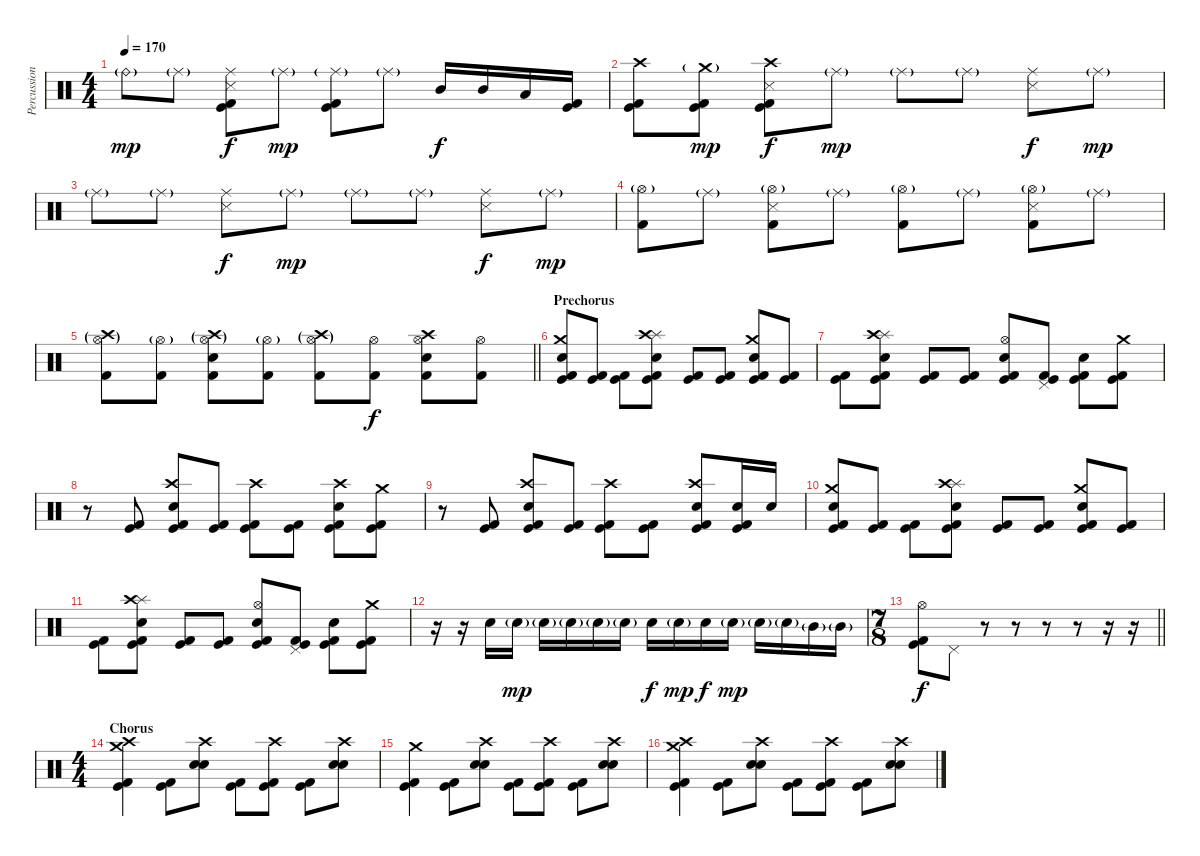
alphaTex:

\track ("Percussion" "Percussion") {instrument percussion}
\staff {score}
\articulation defaults
\ts (4 4)
\tempo 170
\clef neutral
\ks c "Ride (bell)"{g}.8{dy mp} "Ride (middle)"{g}.8
("Ride (middle)" "Snare (side stick) 3" "Kick (hit)" "Kick (hit) 2").8{dy f} "Ride (middle)"{g}.8{dy mp} ("Ride (middle)"{g} "Kick (hit)" "Kick (hit) 2").8 "Ride (middle)"{g}.8 "Mid Tom (hit)".16{dy f} "Mid Tom (hit)".16 "Low Tom (hit)".16 ("Kick (hit) 2" "Kick (hit)").16 |
("Crash high (hit)" "Kick (hit)" "Kick (hit) 2").8 ("Crash medium (hit)"{g} "Kick (hit)" "Kick (hit) 2").8{dy mp} ("Crash high (hit)" "Snare (side stick) 3" "Kick (hit)" "Kick (hit) 2").8{dy f} "Ride (middle)"{g}.8{dy mp} "Ride (middle)"{g}.8 "Ride (middle)"{g}.8 ("Ride (middle)" "Snare (side stick) 3").8{dy f} "Ride (middle)"{g}.8{dy mp} |
"Ride (middle)"{g}.8 "Ride (middle)"{g}.8 ("Ride (middle)" "Snare (side stick) 3").8{dy f} "Ride (middle)"{g}.8{dy mp} "Ride (middle)"{g}.8 "Ride (middle)"{g}.8 ("Ride (middle)" "Snare (side stick) 3").8{dy f} "Ride (middle)"{g}.8{dy mp} |
("Hi-Hat (open)"{g} "Kick (hit) 2").8 "Ride (middle)"{g}.8 ("Hi-Hat (open)"{g} "Snare (side stick) 3" "Kick (hit) 2").8 "Ride (middle)"{g}.8 ("Hi-Hat (open)"{g} "Kick (hit) 2").8 "Ride (middle)"{g}.8 ("Hi-Hat (open)"{g} "Snare (side stick) 3" "Kick (hit) 2").8 "Ride (middle)"{g}.8 |
\barLineRight lightlight
("Hi-Hat (open)"{g} "Crash high (hit)"{g} "Kick (hit) 2").8 ("Hi-Hat (open)"{g} "Kick (hit) 2").8 ("Hi-Hat (open)"{g} "Crash high (hit)"{g} "Electric Snare (hit)" "Kick (hit) 2").8 ("Hi-Hat (open)"{g} "Kick (hit) 2").8 ("Hi-Hat (open)"{g} "Crash high (hit)"{g} "Kick (hit) 2").8 ("Hi-Hat (open)" "Kick (hit) 2").8{dy f} ("Hi-Hat (open)" "Crash high (hit)" "Electric Snare (hit)" "Kick (hit) 2").8 ("Hi-Hat (open)" "Kick (hit) 2").8 |
\section ("" "Prechorus")
("Crash medium (hit)" "Electric Snare (hit)" "Kick (hit)" "Kick (hit) 2").8 ("Kick (hit)" "Kick (hit) 2").8 ("Kick (hit)" "Kick (hit) 2").8 ("Splash (hit)" "Crash high (hit)" "Electric Snare (hit)" "Kick (hit)" "Kick (hit) 2").8 ("Kick (hit)" "Kick (hit) 2").8 ("Kick (hit)" "Kick (hit) 2").8 ("Crash medium (hit)" "Electric Snare (hit)" "Kick (hit)" "Kick (hit) 2").8 ("Kick (hit)" "Kick (hit) 2").8 |
("Kick (hit)" "Kick (hit) 2").8 ("Splash (hit)" "Crash high (hit)" "Electric Snare (hit)" "Kick (hit)" "Kick (hit) 2").8 ("Kick (hit)" "Kick (hit) 2").8 ("Kick (hit)" "Kick (hit) 2").8 ("Hi-Hat (open)" "Electric Snare (hit)" "Kick (hit)" "Kick (hit) 2").8 ("Pedal Hi-Hat (hit)" "Kick (hit)" "Kick (hit) 2").8 ("Electric Snare (hit)" "Kick (hit)" "Kick (hit) 2").8 ("Crash medium (hit)" "Kick (hit)" "Kick (hit) 2").8 |
r.8 ("Kick (hit)" "Kick (hit) 2").8 ("Crash high (hit)" "Electric Snare (hit)" "Kick (hit)" "Kick (hit) 2").8 ("Kick (hit)" "Kick (hit) 2").8 ("Crash high (hit)" "Kick (hit)" "Kick (hit) 2").8 ("Kick (hit)" "Kick (hit) 2").8 ("Crash high (hit)" "Electric Snare (hit)" "Kick (hit)" "Kick (hit) 2").8 ("Crash medium (hit)" "Kick (hit)" "Kick (hit) 2").8 |
r.8 ("Kick (hit)" "Kick (hit) 2").8 ("Crash high (hit)" "Electric Snare (hit)" "Kick (hit)" "Kick (hit) 2").8 ("Kick (hit)" "Kick (hit) 2").8 ("Crash high (hit)" "Kick (hit)" "Kick (hit) 2").8 ("Kick (hit)" "Kick (hit) 2").8 ("Crash high (hit)" "Electric Snare (hit)" "Kick (hit)" "Kick (hit) 2").8 ("Electric Snare (hit)" "Kick (hit)" "Kick (hit) 2").16 "Electric Snare (hit)".16 |
("Crash medium (hit)" "Electric Snare (hit)" "Kick (hit)" "Kick (hit) 2").8 ("Kick (hit)" "Kick (hit) 2").8 ("Kick (hit)" "Kick (hit) 2").8 ("Splash (hit)" "Crash high (hit)" "Electric Snare (hit)" "Kick (hit)" "Kick (hit) 2").8 ("Kick (hit)" "Kick (hit) 2").8 ("Kick (hit)" "Kick (hit) 2").8 ("Crash medium (hit)" "Electric Snare (hit)" "Kick (hit)" "Kick (hit) 2").8 ("Kick (hit)" "Kick (hit) 2").8 |
("Kick (hit)" "Kick (hit) 2").8 ("Splash (hit)" "Crash high (hit)" "Electric Snare (hit)" "Kick (hit)" "Kick (hit) 2").8 ("Kick (hit)" "Kick (hit) 2").8 ("Kick (hit)" "Kick (hit) 2").8 ("Hi-Hat (open)" "Electric Snare (hit)" "Kick (hit)" "Kick (hit) 2").8 ("Pedal Hi-Hat (hit)" "Kick (hit)" "Kick (hit) 2").8 ("Electric Snare (hit)" "Kick (hit)" "Kick (hit) 2").8 ("Crash medium (hit)" "Kick (hit)" "Kick (hit) 2").8 |
r.16 r.16 "Electric Snare (hit)".16 "Electric Snare (hit)"{g}.16{dy mp} "Electric Snare (hit)"{g}.16 "Electric Snare (hit)"{g}.16 "Electric Snare (hit)"{g}.16 "Electric Snare (hit)"{g}.16 "Electric Snare (hit)".16{dy f} "Electric Snare (hit)"{g}.16{dy mp} "Electric Snare (hit)".16{dy f} "Electric Snare (hit)"{g}.16{dy mp} "Electric Snare (hit)"{g}.16 "Electric Snare (hit)"{g}.16 "Mid Tom (hit)"{g}.16 "Mid Tom (hit)"{g}.16 |
\ts (7 8)
\barLineRight lightlight
("Hi-Hat (open)" "Kick (hit)" "Kick (hit) 2").8{dy f} "Pedal Hi-Hat (hit)".8 r.8 r.8 r.8 r.8 r.16 r.16 |
\ts (4 4)
\section ("" "Chorus")
("Crash medium (hit)" "Crash high (hit)" "Kick (hit)" "Kick (hit) 2").4 ("Kick (hit)" "Kick (hit) 2").8 ("Crash high (hit)" "Snare (hit) 2" "Electric Snare (hit)").8 ("Kick (hit)" "Kick (hit) 2").8 ("Crash high (hit)" "Kick (hit)" "Kick (hit) 2").8 ("Kick (hit)" "Kick (hit) 2").8 ("Crash high (hit)" "Snare (hit) 2" "Electric Snare (hit)").8 |
("Crash medium (hit)" "Kick (hit)" "Kick (hit) 2").4 ("Kick (hit)" "Kick (hit) 2").8 ("Crash high (hit)" "Snare (hit) 2" "Electric Snare (hit)").8 ("Kick (hit)" "Kick (hit) 2").8 ("Crash high (hit)" "Kick (hit)" "Kick (hit) 2").8 ("Kick (hit)" "Kick (hit) 2").8 ("Crash high (hit)" "Snare (hit) 2" "Electric Snare (hit)").8 |
("Crash medium (hit)" "Crash high (hit)" "Kick (hit)" "Kick (hit) 2").4 ("Kick (hit)" "Kick (hit) 2").8 ("Crash high (hit)" "Snare (hit) 2" "Electric Snare (hit)").8 ("Kick (hit)" "Kick (hit) 2").8 ("Crash high (hit)" "Kick (hit)" "Kick (hit) 2").8 ("Kick (hit)" "Kick (hit) 2").8 ("Crash high (hit)" "Snare (hit) 2" "Electric Snare (hit)").8
